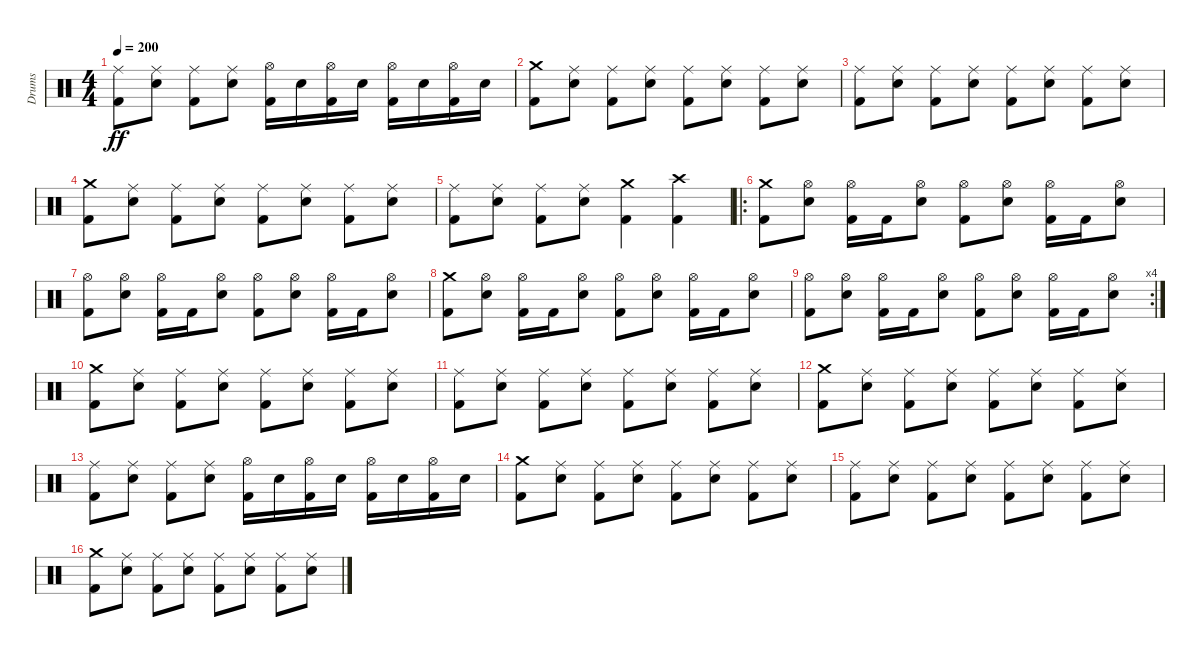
\track ("Drums" "Drums") {instrument percussion}
\staff {score}
\articulation defaults
\ts (4 4)
\tempo 200
\clef neutral
\ks c
("Ride (middle)" "Kick (hit) 2").8{dy ff} ("Ride (middle)" "Snare (hit) 2").8 ("Ride (middle)" "Kick (hit) 2").8 ("Ride (middle)" "Snare (hit) 2").8 ("Hi-Hat (open)" "Kick (hit) 2").16 "Snare (hit) 2".16 ("Hi-Hat (open)" "Kick (hit) 2").16 "Snare (hit) 2".16 ("Hi-Hat (open)" "Kick (hit) 2").16 "Snare (hit) 2".16 ("Hi-Hat (open)" "Kick (hit) 2").16 "Snare (hit) 2".16 |
("Crash medium (hit)" "Kick (hit) 2").8 ("Ride (middle)" "Snare (hit) 2").8 ("Ride (middle)" "Kick (hit) 2").8 ("Ride (middle)" "Snare (hit) 2").8 ("Ride (middle)" "Kick (hit) 2").8 ("Ride (middle)" "Snare (hit) 2").8 ("Ride (middle)" "Kick (hit) 2").8 ("Ride (middle)" "Snare (hit) 2").8 |
("Ride (middle)" "Kick (hit) 2").8 ("Ride (middle)" "Snare (hit) 2").8 ("Ride (middle)" "Kick (hit) 2").8 ("Ride (middle)" "Snare (hit) 2").8 ("Ride (middle)" "Kick (hit) 2").8 ("Ride (middle)" "Snare (hit) 2").8 ("Ride (middle)" "Kick (hit) 2").8 ("Ride (middle)" "Snare (hit) 2").8 |
("Crash medium (hit)" "Kick (hit) 2").8 ("Ride (middle)" "Snare (hit) 2").8 ("Ride (middle)" "Kick (hit) 2").8 ("Ride (middle)" "Snare (hit) 2").8 ("Ride (middle)" "Kick (hit) 2").8 ("Ride (middle)" "Snare (hit) 2").8 ("Ride (middle)" "Kick (hit) 2").8 ("Ride (middle)" "Snare (hit) 2").8 |
("Ride (middle)" "Kick (hit) 2").8 ("Ride (middle)" "Snare (hit) 2").8 ("Ride (middle)" "Kick (hit) 2").8 ("Ride (middle)" "Snare (hit) 2").8 ("Crash medium (hit)" "Kick (hit) 2").4 ("Crash high (hit)" "Kick (hit) 2").4 |
\ro
("Crash medium (hit)" "Kick (hit) 2").8 ("Hi-Hat (open)" "Snare (hit) 2").8 ("Hi-Hat (open)" "Kick (hit) 2").16 "Kick (hit) 2".16 ("Hi-Hat (open)" "Snare (hit) 2").8 ("Hi-Hat (open)" "Kick (hit) 2").8 ("Hi-Hat (open)" "Snare (hit) 2").8 ("Hi-Hat (open)" "Kick (hit) 2").16 "Kick (hit) 2".16 ("Hi-Hat (open)" "Snare (hit) 2").8 |
("Hi-Hat (open)" "Kick (hit) 2").8 ("Hi-Hat (open)" "Snare (hit) 2").8 ("Hi-Hat (open)" "Kick (hit) 2").16 "Kick (hit) 2".16 ("Hi-Hat (open)" "Snare (hit) 2").8 ("Hi-Hat (open)" "Kick (hit) 2").8 ("Hi-Hat (open)" "Snare (hit) 2").8 ("Hi-Hat (open)" "Kick (hit) 2").16 "Kick (hit) 2".16 ("Hi-Hat (open)" "Snare (hit) 2").8 |
("Crash medium (hit)" "Kick (hit) 2").8 ("Hi-Hat (open)" "Snare (hit) 2").8 ("Hi-Hat (open)" "Kick (hit) 2").16 "Kick (hit) 2".16 ("Hi-Hat (open)" "Snare (hit) 2").8 ("Hi-Hat (open)" "Kick (hit) 2").8 ("Hi-Hat (open)" "Snare (hit) 2").8 ("Hi-Hat (open)" "Kick (hit) 2").16 "Kick (hit) 2".16 ("Hi-Hat (open)" "Snare (hit) 2").8 |
\rc 4
("Hi-Hat (open)" "Kick (hit) 2").8 ("Hi-Hat (open)" "Snare (hit) 2").8 ("Hi-Hat (open)" "Kick (hit) 2").16 "Kick (hit) 2".16 ("Hi-Hat (open)" "Snare (hit) 2").8 ("Hi-Hat (open)" "Kick (hit) 2").8 ("Hi-Hat (open)" "Snare (hit) 2").8 ("Hi-Hat (open)" "Kick (hit) 2").16 "Kick (hit) 2".16 ("Hi-Hat (open)" "Snare (hit) 2").8 |
("Crash medium (hit)" "Kick (hit) 2").8 ("Ride (middle)" "Snare (hit) 2").8 ("Ride (middle)" "Kick (hit) 2").8 ("Ride (middle)" "Snare (hit) 2").8 ("Ride (middle)" "Kick (hit) 2").8 ("Ride (middle)" "Snare (hit) 2").8 ("Ride (middle)" "Kick (hit) 2").8 ("Ride (middle)" "Snare (hit) 2").8 |
("Ride (middle)" "Kick (hit) 2").8 ("Ride (middle)" "Snare (hit) 2").8 ("Ride (middle)" "Kick (hit) 2").8 ("Ride (middle)" "Snare (hit) 2").8 ("Ride (middle)" "Kick (hit) 2").8 ("Ride (middle)" "Snare (hit) 2").8 ("Ride (middle)" "Kick (hit) 2").8 ("Ride (middle)" "Snare (hit) 2").8 |
("Crash medium (hit)" "Kick (hit) 2").8 ("Ride (middle)" "Snare (hit) 2").8 ("Ride (middle)" "Kick (hit) 2").8 ("Ride (middle)" "Snare (hit) 2").8 ("Ride (middle)" "Kick (hit) 2").8 ("Ride (middle)" "Snare (hit) 2").8 ("Ride (middle)" "Kick (hit) 2").8 ("Ride (middle)" "Snare (hit) 2").8 |
("Ride (middle)" "Kick (hit) 2").8 ("Ride (middle)" "Snare (hit) 2").8 ("Ride (middle)" "Kick (hit) 2").8 ("Ride (middle)" "Snare (hit) 2").8 ("Hi-Hat (open)" "Kick (hit) 2").16 "Snare (hit) 2".16 ("Hi-Hat (open)" "Kick (hit) 2").16 "Snare (hit) 2".16 ("Hi-Hat (open)" "Kick (hit) 2").16 "Snare (hit) 2".16 ("Hi-Hat (open)" "Kick (hit) 2").16 "Snare (hit) 2".16 |
("Crash medium (hit)" "Kick (hit) 2").8 ("Ride (middle)" "Snare (hit) 2").8 ("Ride (middle)" "Kick (hit) 2").8 ("Ride (middle)" "Snare (hit) 2").8 ("Ride (middle)" "Kick (hit) 2").8 ("Ride (middle)" "Snare (hit) 2").8 ("Ride (middle)" "Kick (hit) 2").8 ("Ride (middle)" "Snare (hit) 2").8 |
("Ride (middle)" "Kick (hit) 2").8 ("Ride (middle)" "Snare (hit) 2").8 ("Ride (middle)" "Kick (hit) 2").8 ("Ride (middle)" "Snare (hit) 2").8 ("Ride (middle)" "Kick (hit) 2").8 ("Ride (middle)" "Snare (hit) 2").8 ("Ride (middle)" "Kick (hit) 2").8 ("Ride (middle)" "Snare (hit) 2").8 |
("Crash medium (hit)" "Kick (hit) 2").8 ("Ride (middle)" "Snare (hit) 2").8 ("Ride (middle)" "Kick (hit) 2").8 ("Ride (middle)" "Snare (hit) 2").8 ("Ride (middle)" "Kick (hit) 2").8 ("Ride (middle)" "Snare (hit) 2").8 ("Ride (middle)" "Kick (hit) 2").8 ("Ride (middle)" "Snare (hit) 2").8
